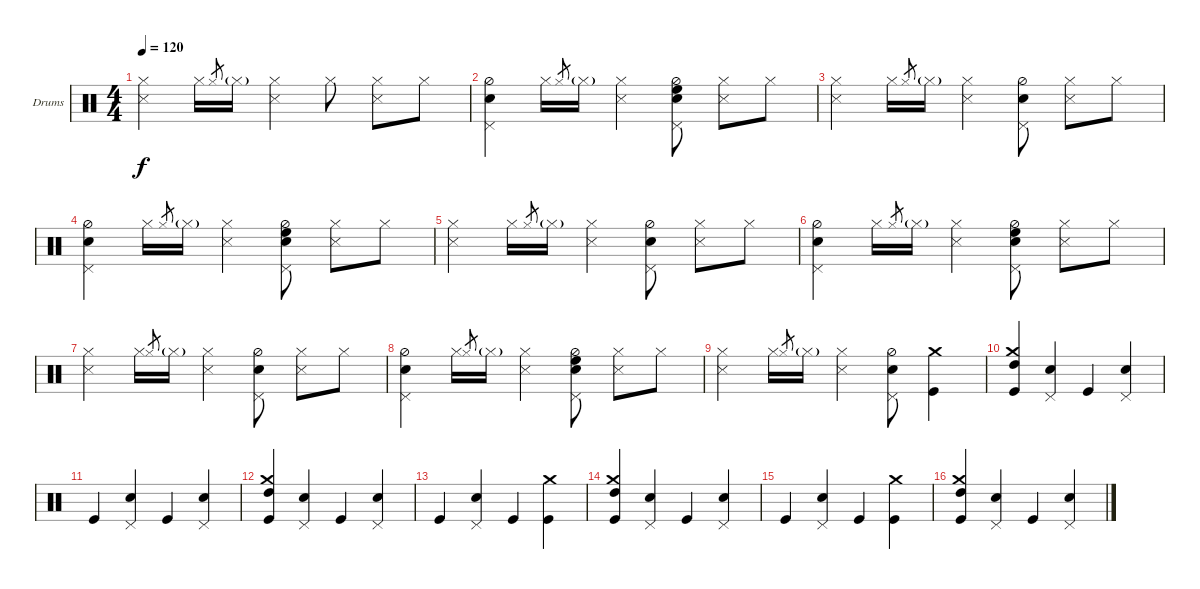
\defaultSystemsLayout 4
\bracketExtendMode groupsimilarinstruments
\firstSystemTrackNameOrientation horizontal
\otherSystemsTrackNameOrientation horizontal
\track ("Drumkit" "Drums") {instrument percussion}
\staff {score}
\articulation defaults
\ts (4 4)
\tempo 120
\clef neutral
\ks c
("Hi-Hat (closed)" "Snare (side stick) 3").4{dy f} "Hi-Hat (closed)".16 "Hi-Hat (closed)".8{gr} "Hi-Hat (closed)"{g}.16 ("Hi-Hat (closed)" "Snare (side stick) 3").4 "Hi-Hat (closed)".8 ("Hi-Hat (closed)" "Snare (side stick) 3").8 "Hi-Hat (closed)".8 |
("Snare (hit) 2" "Pedal Hi-Hat (hit)" "Hi-Hat (half)").4 "Hi-Hat (closed)".16 "Hi-Hat (closed)".8{gr} "Hi-Hat (closed)"{g}.16 ("Hi-Hat (closed)" "Snare (side stick) 3").4 ("Snare (hit) 2" "Pedal Hi-Hat (hit)" "Hi-Hat (half)" "High Floor Tom (hit)").8 ("Hi-Hat (closed)" "Snare (side stick) 3").8 "Hi-Hat (closed)".8 |
("Hi-Hat (closed)" "Snare (side stick) 3").4 "Hi-Hat (closed)".16 "Hi-Hat (closed)".8{gr} "Hi-Hat (closed)"{g}.16 ("Hi-Hat (closed)" "Snare (side stick) 3").4 ("Snare (hit) 2" "Pedal Hi-Hat (hit)" "Hi-Hat (half)").8 ("Hi-Hat (closed)" "Snare (side stick) 3").8 "Hi-Hat (closed)".8 |
("Snare (hit) 2" "Pedal Hi-Hat (hit)" "Hi-Hat (half)").4 "Hi-Hat (closed)".16 "Hi-Hat (closed)".8{gr} "Hi-Hat (closed)"{g}.16 ("Hi-Hat (closed)" "Snare (side stick) 3").4 ("Snare (hit) 2" "Pedal Hi-Hat (hit)" "Hi-Hat (half)" "High Floor Tom (hit)").8 ("Hi-Hat (closed)" "Snare (side stick) 3").8 "Hi-Hat (closed)".8 |
("Hi-Hat (closed)" "Snare (side stick) 3").4 "Hi-Hat (closed)".16 "Hi-Hat (closed)".8{gr} "Hi-Hat (closed)"{g}.16 ("Hi-Hat (closed)" "Snare (side stick) 3").4 ("Snare (hit) 2" "Pedal Hi-Hat (hit)" "Hi-Hat (half)").8 ("Hi-Hat (closed)" "Snare (side stick) 3").8 "Hi-Hat (closed)".8 |
("Snare (hit) 2" "Pedal Hi-Hat (hit)" "Hi-Hat (half)").4 "Hi-Hat (closed)".16 "Hi-Hat (closed)".8{gr} "Hi-Hat (closed)"{g}.16 ("Hi-Hat (closed)" "Snare (side stick) 3").4 ("Snare (hit) 2" "Pedal Hi-Hat (hit)" "Hi-Hat (half)" "High Floor Tom (hit)").8 ("Hi-Hat (closed)" "Snare (side stick) 3").8 "Hi-Hat (closed)".8 |
("Hi-Hat (closed)" "Snare (side stick) 3").4 "Hi-Hat (closed)".16 "Hi-Hat (closed)".8{gr} "Hi-Hat (closed)"{g}.16 ("Hi-Hat (closed)" "Snare (side stick) 3").4 ("Snare (hit) 2" "Pedal Hi-Hat (hit)" "Hi-Hat (half)").8 ("Hi-Hat (closed)" "Snare (side stick) 3").8 "Hi-Hat (closed)".8 |
("Snare (hit) 2" "Pedal Hi-Hat (hit)" "Hi-Hat (half)").4 "Hi-Hat (closed)".16 "Hi-Hat (closed)".8{gr} "Hi-Hat (closed)"{g}.16 ("Hi-Hat (closed)" "Snare (side stick) 3").4 ("Snare (hit) 2" "Pedal Hi-Hat (hit)" "Hi-Hat (half)" "High Floor Tom (hit)").8 ("Hi-Hat (closed)" "Snare (side stick) 3").8 "Hi-Hat (closed)".8 |
("Hi-Hat (closed)" "Snare (side stick) 3").4 "Hi-Hat (closed)".16 "Hi-Hat (closed)".8{gr} "Hi-Hat (closed)"{g}.16 ("Hi-Hat (closed)" "Snare (side stick) 3").4 ("Snare (hit) 2" "Pedal Hi-Hat (hit)" "Hi-Hat (half)").8 ("Kick (hit)" "Crash medium (hit)").4 |
("Kick (hit)" "Crash medium (hit)" "High Tom (hit)").4 ("Pedal Hi-Hat (hit)" "Snare (hit) 2").4 "Kick (hit)".4 ("Pedal Hi-Hat (hit)" "Snare (hit) 2").4 |
"Kick (hit)".4 ("Pedal Hi-Hat (hit)" "Snare (hit) 2").4 "Kick (hit)".4 ("Pedal Hi-Hat (hit)" "Snare (hit) 2").4 |
("Kick (hit)" "Crash medium (hit)" "High Tom (hit)").4 ("Pedal Hi-Hat (hit)" "Snare (hit) 2").4 "Kick (hit)".4 ("Pedal Hi-Hat (hit)" "Snare (hit) 2").4 |
"Kick (hit)".4 ("Pedal Hi-Hat (hit)" "Snare (hit) 2").4 "Kick (hit)".4 ("Kick (hit)" "Crash medium (hit)").4 |
("Kick (hit)" "Crash medium (hit)" "High Tom (hit)").4 ("Pedal Hi-Hat (hit)" "Snare (hit) 2").4 "Kick (hit)".4 ("Pedal Hi-Hat (hit)" "Snare (hit) 2").4 |
"Kick (hit)".4 ("Pedal Hi-Hat (hit)" "Snare (hit) 2").4 "Kick (hit)".4 ("Kick (hit)" "Crash medium (hit)").4 |
("Kick (hit)" "Crash medium (hit)" "High Tom (hit)").4 ("Pedal Hi-Hat (hit)" "Snare (hit) 2").4 "Kick (hit)".4 ("Pedal Hi-Hat (hit)" "Snare (hit) 2").4
